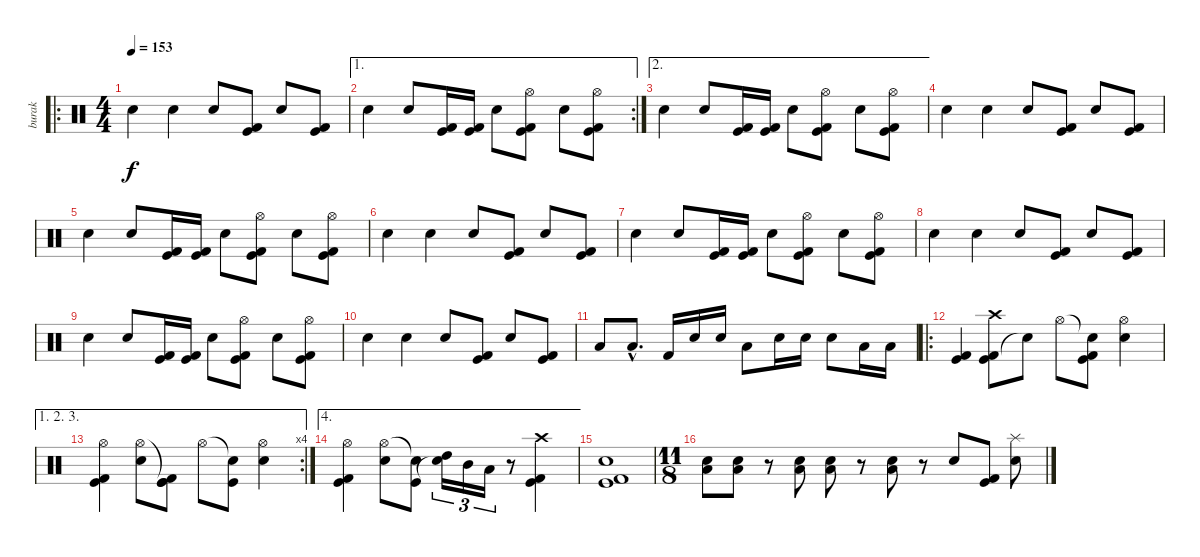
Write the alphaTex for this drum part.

\track ("burak" "burak") {instrument percussion}
\staff {score}
\articulation defaults
\ro
\ts (4 4)
\tempo 153
\clef neutral
\ks c "Electric Snare (hit)".4{dy f} "Electric Snare (hit)".4 "Electric Snare (hit)".8
("Kick (hit)" "Kick (hit) 2").8 "Electric Snare (hit)".8 ("Kick (hit)" "Kick (hit) 2").8 |
\ae 1
\rc 2 "Electric Snare (hit)".4 "Electric Snare (hit)".8
("Kick (hit)" "Kick (hit) 2").16 ("Kick (hit)" "Kick (hit) 2").16 "Electric Snare (hit)".8 ("Kick (hit)" "Kick (hit) 2" "Hi-Hat (open)").8 "Electric Snare (hit)".8 ("Kick (hit)" "Kick (hit) 2" "Hi-Hat (open)").8 |
\ae 2 "Electric Snare (hit)".4 "Electric Snare (hit)".8
("Kick (hit)" "Kick (hit) 2").16 ("Kick (hit)" "Kick (hit) 2").16 "Electric Snare (hit)".8 ("Kick (hit)" "Kick (hit) 2" "Hi-Hat (open)").8 "Electric Snare (hit)".8 ("Kick (hit)" "Kick (hit) 2" "Hi-Hat (open)").8 |
"Electric Snare (hit)".4 "Electric Snare (hit)".4 "Electric Snare (hit)".8 ("Kick (hit)" "Kick (hit) 2").8 "Electric Snare (hit)".8 ("Kick (hit)" "Kick (hit) 2").8 |
"Electric Snare (hit)".4 "Electric Snare (hit)".8 ("Kick (hit)" "Kick (hit) 2").16 ("Kick (hit)" "Kick (hit) 2").16 "Electric Snare (hit)".8 ("Kick (hit)" "Kick (hit) 2" "Hi-Hat (open)").8 "Electric Snare (hit)".8 ("Kick (hit)" "Kick (hit) 2" "Hi-Hat (open)").8 |
"Electric Snare (hit)".4 "Electric Snare (hit)".4 "Electric Snare (hit)".8 ("Kick (hit)" "Kick (hit) 2").8 "Electric Snare (hit)".8 ("Kick (hit)" "Kick (hit) 2").8 |
"Electric Snare (hit)".4 "Electric Snare (hit)".8 ("Kick (hit)" "Kick (hit) 2").16 ("Kick (hit)" "Kick (hit) 2").16 "Electric Snare (hit)".8 ("Kick (hit)" "Kick (hit) 2" "Hi-Hat (open)").8 "Electric Snare (hit)".8 ("Kick (hit)" "Kick (hit) 2" "Hi-Hat (open)").8 |
"Electric Snare (hit)".4 "Electric Snare (hit)".4 "Electric Snare (hit)".8 ("Kick (hit)" "Kick (hit) 2").8 "Electric Snare (hit)".8 ("Kick (hit)" "Kick (hit) 2").8 |
"Electric Snare (hit)".4 "Electric Snare (hit)".8 ("Kick (hit)" "Kick (hit) 2").16 ("Kick (hit)" "Kick (hit) 2").16 "Electric Snare (hit)".8 ("Kick (hit)" "Kick (hit) 2" "Hi-Hat (open)").8 "Electric Snare (hit)".8 ("Kick (hit)" "Kick (hit) 2" "Hi-Hat (open)").8 |
"Electric Snare (hit)".4 "Electric Snare (hit)".4 "Electric Snare (hit)".8 ("Kick (hit)" "Kick (hit) 2").8 "Electric Snare (hit)".8 ("Kick (hit)" "Kick (hit) 2").8 |
"Low Tom (hit)".8 "Low Tom (hit)"{hac}.8{d} "Kick (hit) 2".16 "Electric Snare (hit)".16 "Electric Snare (hit)".16 "Low Tom (hit)".8 "Electric Snare (hit)".16 "Electric Snare (hit)".16 "Electric Snare (hit)".8 "Low Tom (hit)".16 "Low Tom (hit)".16 |
\ro
("Kick (hit)" "Kick (hit) 2").4 ("Kick (hit)" "Kick (hit) 2" "Crash high (hit)").8 "Snare (hit)"{t}.8 "Hi-Hat (open)".8 ("Snare (hit)"{t} "Kick (hit)" "Kick (hit) 2").8 ("Hi-Hat (open)" "Electric Snare (hit)").4 |
\ae (1 2 3)
\rc 4
("Hi-Hat (open)" "Kick (hit)" "Kick (hit) 2").4 ("Hi-Hat (open)" "Electric Snare (hit)").8 ("Kick (hit)"{t} "Kick (hit)" "Kick (hit) 2").8 "Hi-Hat (open)".8 ("Snare (hit)"{t} "Kick (hit)").8 ("Hi-Hat (open)" "Electric Snare (hit)").4 |
\ae 4
("Hi-Hat (open)" "Kick (hit)" "Kick (hit) 2").4 ("Hi-Hat (open)" "Electric Snare (hit)").8 ("Snare (hit)"{t} "Kick (hit)").8 ("High Tom (hit)" "Snare (hit)"{t}).16{tu (3 2)} "Mid Tom (hit)".16{tu (3 2)} "Low Tom (hit)".16{tu (3 2)} r.8 ("Crash high (hit)" "Kick (hit)" "Kick (hit) 2").4 |
("Electric Snare (hit)" "Kick (hit)" "Kick (hit) 2").1 |
\ts (11 8)
("Electric Snare (hit)" "Low Floor Tom (hit)").8 ("Electric Snare (hit)" "Low Floor Tom (hit)").8 r.8 ("Electric Snare (hit)" "Low Floor Tom (hit)").8 ("Electric Snare (hit)" "Low Floor Tom (hit)").8 r.8 ("Electric Snare (hit)" "Low Floor Tom (hit)").8 r.8 "Electric Snare (hit)".8 ("Kick (hit)" "Kick (hit) 2").8 ("Electric Snare (hit)" "Splash (hit)").8
